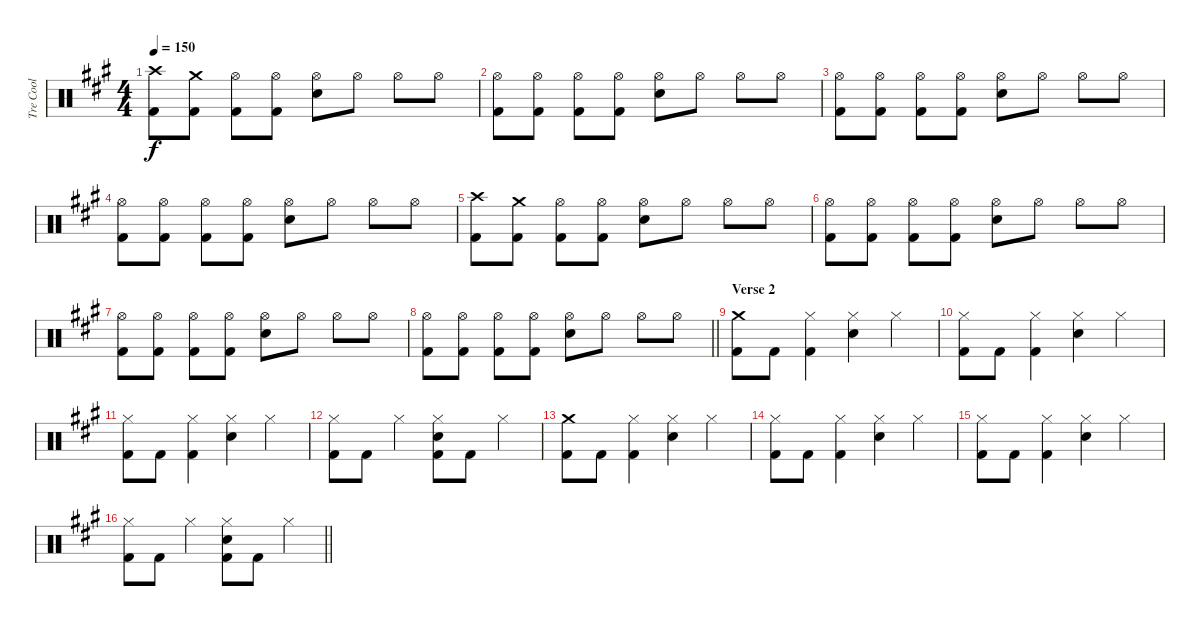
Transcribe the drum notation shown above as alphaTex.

\track ("Tre Cool" "Tre Cool") {instrument percussion}
\staff {score}
\articulation defaults
\ts (4 4)
\tempo 150
\clef neutral
\ks a
("Crash high (hit)" "Kick (hit) 2").8{dy f} ("Crash medium (hit)" "Kick (hit) 2").8 ("Hi-Hat (open)" "Kick (hit) 2").8 ("Hi-Hat (open)" "Kick (hit) 2").8 ("Hi-Hat (open)" "Snare (hit) 2").8 "Hi-Hat (open)".8 "Hi-Hat (open)".8 "Hi-Hat (open)".8 |
("Hi-Hat (open)" "Kick (hit) 2").8 ("Hi-Hat (open)" "Kick (hit) 2").8 ("Hi-Hat (open)" "Kick (hit) 2").8 ("Hi-Hat (open)" "Kick (hit) 2").8 ("Hi-Hat (open)" "Snare (hit) 2").8 "Hi-Hat (open)".8 "Hi-Hat (open)".8 "Hi-Hat (open)".8 |
("Hi-Hat (open)" "Kick (hit) 2").8 ("Hi-Hat (open)" "Kick (hit) 2").8 ("Hi-Hat (open)" "Kick (hit) 2").8 ("Hi-Hat (open)" "Kick (hit) 2").8 ("Hi-Hat (open)" "Snare (hit) 2").8 "Hi-Hat (open)".8 "Hi-Hat (open)".8 "Hi-Hat (open)".8 |
("Hi-Hat (open)" "Kick (hit) 2").8 ("Hi-Hat (open)" "Kick (hit) 2").8 ("Hi-Hat (open)" "Kick (hit) 2").8 ("Hi-Hat (open)" "Kick (hit) 2").8 ("Hi-Hat (open)" "Snare (hit) 2").8 "Hi-Hat (open)".8 "Hi-Hat (open)".8 "Hi-Hat (open)".8 |
("Crash high (hit)" "Kick (hit) 2").8 ("Crash medium (hit)" "Kick (hit) 2").8 ("Hi-Hat (open)" "Kick (hit) 2").8 ("Hi-Hat (open)" "Kick (hit) 2").8 ("Hi-Hat (open)" "Snare (hit) 2").8 "Hi-Hat (open)".8 "Hi-Hat (open)".8 "Hi-Hat (open)".8 |
("Hi-Hat (open)" "Kick (hit) 2").8 ("Hi-Hat (open)" "Kick (hit) 2").8 ("Hi-Hat (open)" "Kick (hit) 2").8 ("Hi-Hat (open)" "Kick (hit) 2").8 ("Hi-Hat (open)" "Snare (hit) 2").8 "Hi-Hat (open)".8 "Hi-Hat (open)".8 "Hi-Hat (open)".8 |
("Hi-Hat (open)" "Kick (hit) 2").8 ("Hi-Hat (open)" "Kick (hit) 2").8 ("Hi-Hat (open)" "Kick (hit) 2").8 ("Hi-Hat (open)" "Kick (hit) 2").8 ("Hi-Hat (open)" "Snare (hit) 2").8 "Hi-Hat (open)".8 "Hi-Hat (open)".8 "Hi-Hat (open)".8 |
\barLineRight lightlight
("Hi-Hat (open)" "Kick (hit) 2").8 ("Hi-Hat (open)" "Kick (hit) 2").8 ("Hi-Hat (open)" "Kick (hit) 2").8 ("Hi-Hat (open)" "Kick (hit) 2").8 ("Hi-Hat (open)" "Snare (hit) 2").8 "Hi-Hat (open)".8 "Hi-Hat (open)".8 "Hi-Hat (open)".8 |
\section ("" "Verse 2")
("Crash medium (hit)" "Kick (hit) 2").8 "Kick (hit) 2".8 ("Hi-Hat (closed)" "Kick (hit) 2").4 ("Hi-Hat (closed)" "Snare (hit) 2").4 "Hi-Hat (closed)".4 |
("Hi-Hat (closed)" "Kick (hit) 2").8 "Kick (hit) 2".8 ("Hi-Hat (closed)" "Kick (hit) 2").4 ("Hi-Hat (closed)" "Snare (hit) 2").4 "Hi-Hat (closed)".4 |
("Hi-Hat (closed)" "Kick (hit) 2").8 "Kick (hit) 2".8 ("Hi-Hat (closed)" "Kick (hit) 2").4 ("Hi-Hat (closed)" "Snare (hit) 2").4 "Hi-Hat (closed)".4 |
("Hi-Hat (closed)" "Kick (hit) 2").8 "Kick (hit) 2".8 "Hi-Hat (closed)".4 ("Hi-Hat (closed)" "Snare (hit) 2" "Kick (hit) 2").8 "Kick (hit) 2".8 "Hi-Hat (closed)".4 |
("Crash medium (hit)" "Kick (hit) 2").8 "Kick (hit) 2".8 ("Hi-Hat (closed)" "Kick (hit) 2").4 ("Hi-Hat (closed)" "Snare (hit) 2").4 "Hi-Hat (closed)".4 |
("Hi-Hat (closed)" "Kick (hit) 2").8 "Kick (hit) 2".8 ("Hi-Hat (closed)" "Kick (hit) 2").4 ("Hi-Hat (closed)" "Snare (hit) 2").4 "Hi-Hat (closed)".4 |
("Hi-Hat (closed)" "Kick (hit) 2").8 "Kick (hit) 2".8 ("Hi-Hat (closed)" "Kick (hit) 2").4 ("Hi-Hat (closed)" "Snare (hit) 2").4 "Hi-Hat (closed)".4 |
\barLineRight lightlight
("Hi-Hat (closed)" "Kick (hit) 2").8 "Kick (hit) 2".8 "Hi-Hat (closed)".4 ("Hi-Hat (closed)" "Snare (hit) 2" "Kick (hit) 2").8 "Kick (hit) 2".8 "Hi-Hat (closed)".4
